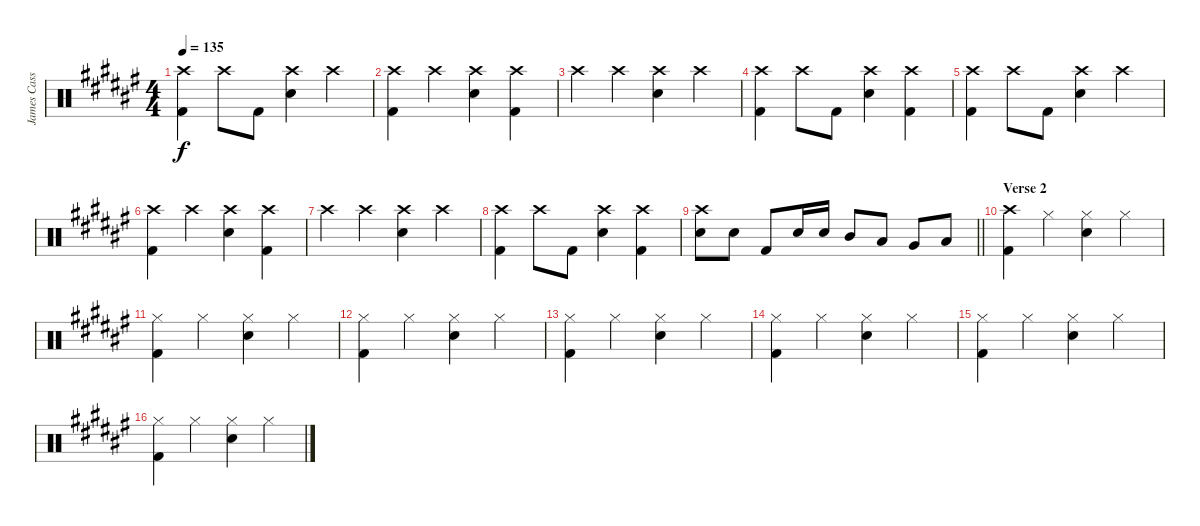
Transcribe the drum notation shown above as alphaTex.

\track ("James Cassells" "James Cass") {instrument percussion}
\staff {score}
\articulation defaults
\ts (4 4)
\tempo 135
\clef neutral
\ks d#minor
("Crash high (hit)" "Kick (hit) 2").4{dy f} "Crash high (hit)".8 "Kick (hit) 2".8 ("Crash high (hit)" "Electric Snare (hit)").4 "Crash high (hit)".4 |
("Crash high (hit)" "Kick (hit) 2").4 "Crash high (hit)".4 ("Crash high (hit)" "Electric Snare (hit)").4 ("Crash high (hit)" "Kick (hit) 2").4 |
"Crash high (hit)".4 "Crash high (hit)".4 ("Crash high (hit)" "Electric Snare (hit)").4 "Crash high (hit)".4 |
("Crash high (hit)" "Kick (hit) 2").4 "Crash high (hit)".8 "Kick (hit) 2".8 ("Crash high (hit)" "Electric Snare (hit)").4 ("Crash high (hit)" "Kick (hit) 2").4 |
("Crash high (hit)" "Kick (hit) 2").4 "Crash high (hit)".8 "Kick (hit) 2".8 ("Crash high (hit)" "Electric Snare (hit)").4 "Crash high (hit)".4 |
("Crash high (hit)" "Kick (hit) 2").4 "Crash high (hit)".4 ("Crash high (hit)" "Electric Snare (hit)").4 ("Crash high (hit)" "Kick (hit) 2").4 |
"Crash high (hit)".4 "Crash high (hit)".4 ("Crash high (hit)" "Electric Snare (hit)").4 "Crash high (hit)".4 |
("Crash high (hit)" "Kick (hit) 2").4 "Crash high (hit)".8 "Kick (hit) 2".8 ("Crash high (hit)" "Electric Snare (hit)").4 ("Crash high (hit)" "Kick (hit) 2").4 |
\barLineRight lightlight
("Crash high (hit)" "Electric Snare (hit)").8 "Electric Snare (hit)".8 "Kick (hit) 2".8 "Electric Snare (hit)".16 "Electric Snare (hit)".16 "Mid Tom (hit)".8 "Low Tom (hit)".8 "Very Low Tom (hit)".8 "Low Floor Tom (hit)".8 |
\section ("" "Verse 2")
("Crash high (hit)" "Kick (hit) 2").4 "Hi-Hat (closed)".4 ("Hi-Hat (closed)" "Electric Snare (hit)").4 "Hi-Hat (closed)".4 |
("Hi-Hat (closed)" "Kick (hit) 2").4 "Hi-Hat (closed)".4 ("Hi-Hat (closed)" "Electric Snare (hit)").4 "Hi-Hat (closed)".4 |
("Hi-Hat (closed)" "Kick (hit) 2").4 "Hi-Hat (closed)".4 ("Hi-Hat (closed)" "Electric Snare (hit)").4 "Hi-Hat (closed)".4 |
("Hi-Hat (closed)" "Kick (hit) 2").4 "Hi-Hat (closed)".4 ("Hi-Hat (closed)" "Electric Snare (hit)").4 "Hi-Hat (closed)".4 |
("Hi-Hat (closed)" "Kick (hit) 2").4 "Hi-Hat (closed)".4 ("Hi-Hat (closed)" "Electric Snare (hit)").4 "Hi-Hat (closed)".4 |
("Hi-Hat (closed)" "Kick (hit) 2").4 "Hi-Hat (closed)".4 ("Hi-Hat (closed)" "Electric Snare (hit)").4 "Hi-Hat (closed)".4 |
("Hi-Hat (closed)" "Kick (hit) 2").4 "Hi-Hat (closed)".4 ("Hi-Hat (closed)" "Electric Snare (hit)").4 "Hi-Hat (closed)".4
